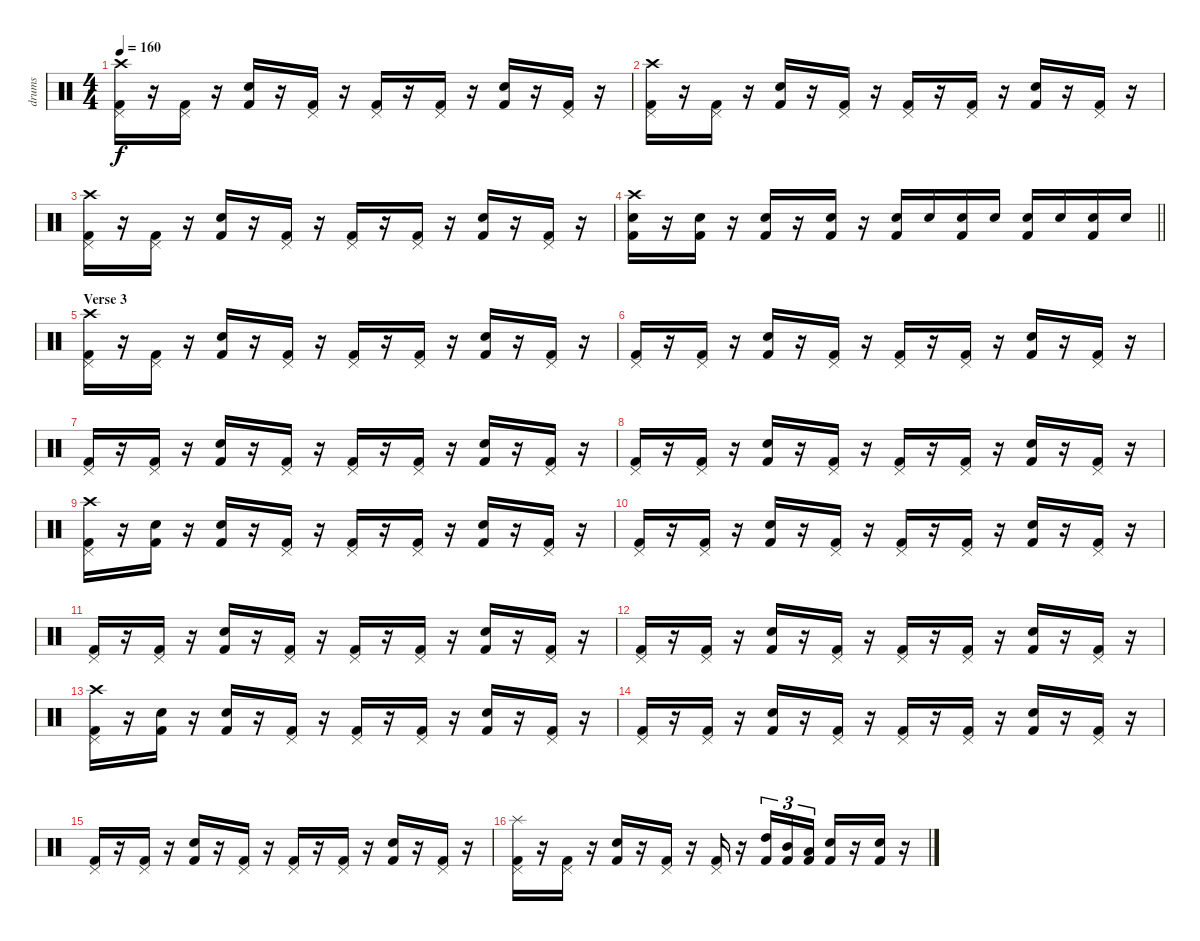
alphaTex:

\track ("drums" "drums") {instrument percussion}
\staff {score}
\articulation defaults
\ts (4 4)
\tempo 160
\clef neutral
\ks c
("Crash high (hit)" "Pedal Hi-Hat (hit)" "Kick (hit) 2").16{dy f} r.16 ("Pedal Hi-Hat (hit)" "Kick (hit) 2").16 r.16 ("Snare (hit) 2" "Kick (hit) 2").16 r.16 ("Pedal Hi-Hat (hit)" "Kick (hit) 2").16 r.16 ("Pedal Hi-Hat (hit)" "Kick (hit) 2").16 r.16 ("Pedal Hi-Hat (hit)" "Kick (hit) 2").16 r.16 ("Snare (hit) 2" "Kick (hit) 2").16 r.16 ("Pedal Hi-Hat (hit)" "Kick (hit) 2").16 r.16 |
("Crash high (hit)" "Pedal Hi-Hat (hit)" "Kick (hit) 2").16 r.16 ("Pedal Hi-Hat (hit)" "Kick (hit) 2").16 r.16 ("Snare (hit) 2" "Kick (hit) 2").16 r.16 ("Pedal Hi-Hat (hit)" "Kick (hit) 2").16 r.16 ("Pedal Hi-Hat (hit)" "Kick (hit) 2").16 r.16 ("Pedal Hi-Hat (hit)" "Kick (hit) 2").16 r.16 ("Snare (hit) 2" "Kick (hit) 2").16 r.16 ("Pedal Hi-Hat (hit)" "Kick (hit) 2").16 r.16 |
("Crash high (hit)" "Pedal Hi-Hat (hit)" "Kick (hit) 2").16 r.16 ("Pedal Hi-Hat (hit)" "Kick (hit) 2").16 r.16 ("Snare (hit) 2" "Kick (hit) 2").16 r.16 ("Pedal Hi-Hat (hit)" "Kick (hit) 2").16 r.16 ("Pedal Hi-Hat (hit)" "Kick (hit) 2").16 r.16 ("Pedal Hi-Hat (hit)" "Kick (hit) 2").16 r.16 ("Snare (hit) 2" "Kick (hit) 2").16 r.16 ("Pedal Hi-Hat (hit)" "Kick (hit) 2").16 r.16 |
\barLineRight lightlight
("Crash high (hit)" "Snare (hit) 2" "Kick (hit) 2").16 r.16 ("Snare (hit) 2" "Kick (hit) 2").16 r.16 ("Snare (hit) 2" "Kick (hit) 2").16 r.16 ("Snare (hit) 2" "Kick (hit) 2").16 r.16 ("Snare (hit) 2" "Kick (hit) 2").16 "Snare (hit) 2".16 ("Snare (hit) 2" "Kick (hit) 2").16 "Snare (hit) 2".16 ("Electric Snare (hit)" "Kick (hit) 2").16 "Electric Snare (hit)".16 ("Electric Snare (hit)" "Kick (hit) 2").16 "Electric Snare (hit)".16 |
\section ("" "Verse 3")
("Crash high (hit)" "Pedal Hi-Hat (hit)" "Kick (hit) 2").16 r.16 ("Pedal Hi-Hat (hit)" "Kick (hit) 2").16 r.16 ("Snare (hit) 2" "Kick (hit) 2").16 r.16 ("Pedal Hi-Hat (hit)" "Kick (hit) 2").16 r.16 ("Pedal Hi-Hat (hit)" "Kick (hit) 2").16 r.16 ("Pedal Hi-Hat (hit)" "Kick (hit) 2").16 r.16 ("Snare (hit) 2" "Kick (hit) 2").16 r.16 ("Pedal Hi-Hat (hit)" "Kick (hit) 2").16 r.16 |
("Pedal Hi-Hat (hit)" "Kick (hit) 2").16 r.16 ("Pedal Hi-Hat (hit)" "Kick (hit) 2").16 r.16 ("Snare (hit) 2" "Kick (hit) 2").16 r.16 ("Pedal Hi-Hat (hit)" "Kick (hit) 2").16 r.16 ("Pedal Hi-Hat (hit)" "Kick (hit) 2").16 r.16 ("Pedal Hi-Hat (hit)" "Kick (hit) 2").16 r.16 ("Snare (hit) 2" "Kick (hit) 2").16 r.16 ("Pedal Hi-Hat (hit)" "Kick (hit) 2").16 r.16 |
("Pedal Hi-Hat (hit)" "Kick (hit) 2").16 r.16 ("Pedal Hi-Hat (hit)" "Kick (hit) 2").16 r.16 ("Snare (hit) 2" "Kick (hit) 2").16 r.16 ("Pedal Hi-Hat (hit)" "Kick (hit) 2").16 r.16 ("Pedal Hi-Hat (hit)" "Kick (hit) 2").16 r.16 ("Pedal Hi-Hat (hit)" "Kick (hit) 2").16 r.16 ("Snare (hit) 2" "Kick (hit) 2").16 r.16 ("Pedal Hi-Hat (hit)" "Kick (hit) 2").16 r.16 |
("Pedal Hi-Hat (hit)" "Kick (hit) 2").16 r.16 ("Pedal Hi-Hat (hit)" "Kick (hit) 2").16 r.16 ("Snare (hit) 2" "Kick (hit) 2").16 r.16 ("Pedal Hi-Hat (hit)" "Kick (hit) 2").16 r.16 ("Pedal Hi-Hat (hit)" "Kick (hit) 2").16 r.16 ("Pedal Hi-Hat (hit)" "Kick (hit) 2").16 r.16 ("Snare (hit) 2" "Kick (hit) 2").16 r.16 ("Pedal Hi-Hat (hit)" "Kick (hit) 2").16 r.16 |
("Crash high (hit)" "Pedal Hi-Hat (hit)" "Kick (hit) 2").16 r.16 ("Snare (hit) 2" "Kick (hit) 2").16 r.16 ("Snare (hit) 2" "Kick (hit) 2").16 r.16 ("Pedal Hi-Hat (hit)" "Kick (hit) 2").16 r.16 ("Pedal Hi-Hat (hit)" "Kick (hit) 2").16 r.16 ("Pedal Hi-Hat (hit)" "Kick (hit) 2").16 r.16 ("Snare (hit) 2" "Kick (hit) 2").16 r.16 ("Pedal Hi-Hat (hit)" "Kick (hit) 2").16 r.16 |
("Pedal Hi-Hat (hit)" "Kick (hit) 2").16 r.16 ("Pedal Hi-Hat (hit)" "Kick (hit) 2").16 r.16 ("Snare (hit) 2" "Kick (hit) 2").16 r.16 ("Pedal Hi-Hat (hit)" "Kick (hit) 2").16 r.16 ("Pedal Hi-Hat (hit)" "Kick (hit) 2").16 r.16 ("Pedal Hi-Hat (hit)" "Kick (hit) 2").16 r.16 ("Snare (hit) 2" "Kick (hit) 2").16 r.16 ("Pedal Hi-Hat (hit)" "Kick (hit) 2").16 r.16 |
("Pedal Hi-Hat (hit)" "Kick (hit) 2").16 r.16 ("Pedal Hi-Hat (hit)" "Kick (hit) 2").16 r.16 ("Snare (hit) 2" "Kick (hit) 2").16 r.16 ("Pedal Hi-Hat (hit)" "Kick (hit) 2").16 r.16 ("Pedal Hi-Hat (hit)" "Kick (hit) 2").16 r.16 ("Pedal Hi-Hat (hit)" "Kick (hit) 2").16 r.16 ("Snare (hit) 2" "Kick (hit) 2").16 r.16 ("Pedal Hi-Hat (hit)" "Kick (hit) 2").16 r.16 |
("Pedal Hi-Hat (hit)" "Kick (hit) 2").16 r.16 ("Pedal Hi-Hat (hit)" "Kick (hit) 2").16 r.16 ("Snare (hit) 2" "Kick (hit) 2").16 r.16 ("Pedal Hi-Hat (hit)" "Kick (hit) 2").16 r.16 ("Pedal Hi-Hat (hit)" "Kick (hit) 2").16 r.16 ("Pedal Hi-Hat (hit)" "Kick (hit) 2").16 r.16 ("Snare (hit) 2" "Kick (hit) 2").16 r.16 ("Pedal Hi-Hat (hit)" "Kick (hit) 2").16 r.16 |
("Crash high (hit)" "Pedal Hi-Hat (hit)" "Kick (hit) 2").16 r.16 ("Snare (hit) 2" "Kick (hit) 2").16 r.16 ("Snare (hit) 2" "Kick (hit) 2").16 r.16 ("Pedal Hi-Hat (hit)" "Kick (hit) 2").16 r.16 ("Pedal Hi-Hat (hit)" "Kick (hit) 2").16 r.16 ("Pedal Hi-Hat (hit)" "Kick (hit) 2").16 r.16 ("Snare (hit) 2" "Kick (hit) 2").16 r.16 ("Pedal Hi-Hat (hit)" "Kick (hit) 2").16 r.16 |
("Pedal Hi-Hat (hit)" "Kick (hit) 2").16 r.16 ("Pedal Hi-Hat (hit)" "Kick (hit) 2").16 r.16 ("Snare (hit) 2" "Kick (hit) 2").16 r.16 ("Pedal Hi-Hat (hit)" "Kick (hit) 2").16 r.16 ("Pedal Hi-Hat (hit)" "Kick (hit) 2").16 r.16 ("Pedal Hi-Hat (hit)" "Kick (hit) 2").16 r.16 ("Snare (hit) 2" "Kick (hit) 2").16 r.16 ("Pedal Hi-Hat (hit)" "Kick (hit) 2").16 r.16 |
("Pedal Hi-Hat (hit)" "Kick (hit) 2").16 r.16 ("Pedal Hi-Hat (hit)" "Kick (hit) 2").16 r.16 ("Snare (hit) 2" "Kick (hit) 2").16 r.16 ("Pedal Hi-Hat (hit)" "Kick (hit) 2").16 r.16 ("Pedal Hi-Hat (hit)" "Kick (hit) 2").16 r.16 ("Pedal Hi-Hat (hit)" "Kick (hit) 2").16 r.16 ("Snare (hit) 2" "Kick (hit) 2").16 r.16 ("Pedal Hi-Hat (hit)" "Kick (hit) 2").16 r.16 |
("Splash (hit)" "Pedal Hi-Hat (hit)" "Kick (hit) 2").16 r.16 ("Pedal Hi-Hat (hit)" "Kick (hit) 2").16 r.16 ("Snare (hit) 2" "Kick (hit) 2").16 r.16 ("Pedal Hi-Hat (hit)" "Kick (hit) 2").16 r.16 ("Pedal Hi-Hat (hit)" "Kick (hit) 2").16 r.16 ("High Tom (hit)" "Kick (hit) 2").16{tu (3 2)} ("Mid Tom (hit)" "Kick (hit) 2").16{tu (3 2)} ("Low Tom (hit)" "Kick (hit) 2").16{tu (3 2)} ("Electric Snare (hit)" "Kick (hit) 2").16 r.16 ("Snare (hit) 2" "Kick (hit) 2").16 r.16
